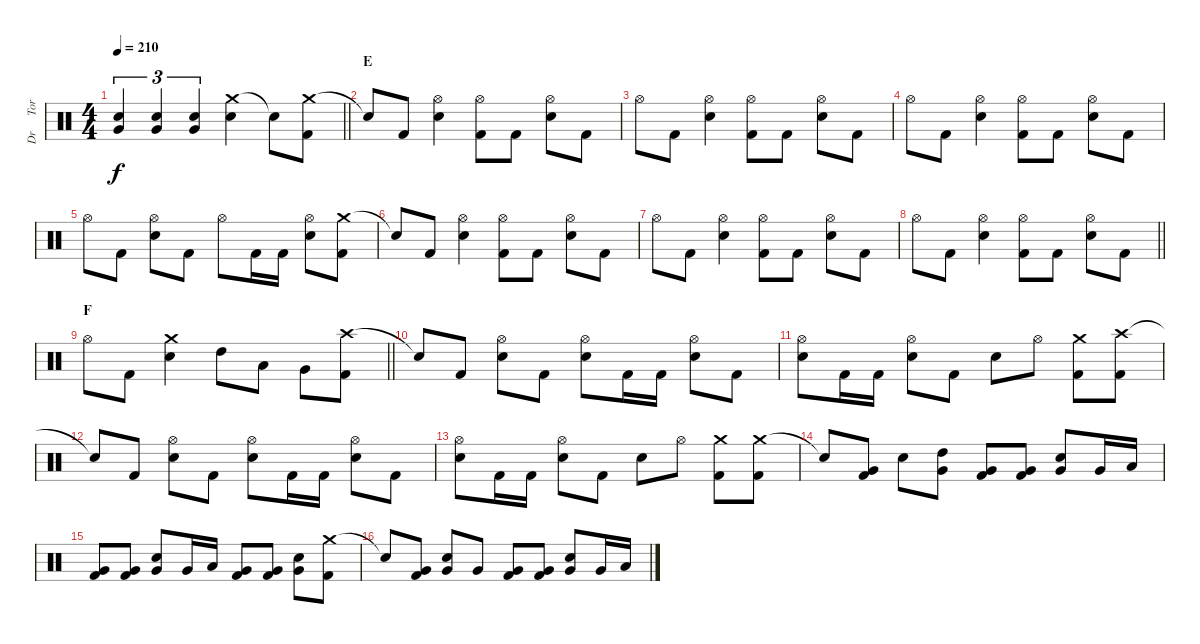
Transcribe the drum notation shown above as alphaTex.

\track ("Dr     Tora" "Dr     Tor") {instrument percussion}
\staff {score}
\articulation defaults
\ts (4 4)
\tempo 210
\clef neutral
\barLineRight lightlight
\ks c
("Electric Snare (hit)" "Very Low Tom (hit)").4{tu (3 2) dy f} ("Electric Snare (hit)" "Very Low Tom (hit)").4{tu (3 2)} ("Electric Snare (hit)" "Very Low Tom (hit)").4{tu (3 2)} ("Crash medium (hit)" "Electric Snare (hit)").4 "Snare (hit)"{t}.8 ("Crash medium (hit)" "Kick (hit) 2").8 |
\section ("" "E")
"Snare (hit)"{t}.8 "Kick (hit) 2".8 ("Hi-Hat (open)" "Electric Snare (hit)").4 ("Hi-Hat (open)" "Kick (hit) 2").8 "Kick (hit) 2".8 ("Hi-Hat (open)" "Electric Snare (hit)").8 "Kick (hit) 2".8 |
"Hi-Hat (open)".8 "Kick (hit) 2".8 ("Hi-Hat (open)" "Electric Snare (hit)").4 ("Hi-Hat (open)" "Kick (hit) 2").8 "Kick (hit) 2".8 ("Hi-Hat (open)" "Electric Snare (hit)").8 "Kick (hit) 2".8 |
"Hi-Hat (open)".8 "Kick (hit) 2".8 ("Hi-Hat (open)" "Electric Snare (hit)").4 ("Hi-Hat (open)" "Kick (hit) 2").8 "Kick (hit) 2".8 ("Hi-Hat (open)" "Electric Snare (hit)").8 "Kick (hit) 2".8 |
"Hi-Hat (open)".8 "Kick (hit) 2".8 ("Hi-Hat (open)" "Electric Snare (hit)").8 "Kick (hit) 2".8 "Hi-Hat (open)".8 "Kick (hit) 2".16 "Kick (hit) 2".16 ("Hi-Hat (open)" "Electric Snare (hit)").8 ("Crash medium (hit)" "Kick (hit) 2").8 |
"Snare (hit)"{t}.8 "Kick (hit) 2".8 ("Hi-Hat (open)" "Electric Snare (hit)").4 ("Hi-Hat (open)" "Kick (hit) 2").8 "Kick (hit) 2".8 ("Hi-Hat (open)" "Electric Snare (hit)").8 "Kick (hit) 2".8 |
"Hi-Hat (open)".8 "Kick (hit) 2".8 ("Hi-Hat (open)" "Electric Snare (hit)").4 ("Hi-Hat (open)" "Kick (hit) 2").8 "Kick (hit) 2".8 ("Hi-Hat (open)" "Electric Snare (hit)").8 "Kick (hit) 2".8 |
\barLineRight lightlight "Hi-Hat (open)".8 "Kick (hit) 2".8
("Hi-Hat (open)" "Electric Snare (hit)").4 ("Hi-Hat (open)" "Kick (hit) 2").8 "Kick (hit) 2".8 ("Hi-Hat (open)" "Electric Snare (hit)").8 "Kick (hit) 2".8 |
\section ("" "F")
\barLineRight lightlight "Hi-Hat (open)".8 "Kick (hit) 2".8
("Crash medium (hit)" "Electric Snare (hit)").4 "High Tom (hit)".8 "Low Tom (hit)".8 "Very Low Tom (hit)".8 ("Crash high (hit)" "Kick (hit) 2").8 |
"Snare (hit)"{t}.8 "Kick (hit) 2".8 ("Hi-Hat (open)" "Electric Snare (hit)").8 "Kick (hit) 2".8 ("Hi-Hat (open)" "Electric Snare (hit)").8 "Kick (hit) 2".16 "Kick (hit) 2".16 ("Hi-Hat (open)" "Electric Snare (hit)").8 "Kick (hit) 2".8 |
("Hi-Hat (open)" "Electric Snare (hit)").8 "Kick (hit) 2".16 "Kick (hit) 2".16 ("Hi-Hat (open)" "Electric Snare (hit)").8 "Kick (hit) 2".8 "Electric Snare (hit)".8 "Hi-Hat (open)".8 ("Crash medium (hit)" "Kick (hit) 2").8 ("Crash high (hit)" "Kick (hit) 2").8 |
"Snare (hit)"{t}.8 "Kick (hit) 2".8 ("Hi-Hat (open)" "Electric Snare (hit)").8 "Kick (hit) 2".8 ("Hi-Hat (open)" "Electric Snare (hit)").8 "Kick (hit) 2".16 "Kick (hit) 2".16 ("Hi-Hat (open)" "Electric Snare (hit)").8 "Kick (hit) 2".8 |
("Hi-Hat (open)" "Electric Snare (hit)").8 "Kick (hit) 2".16 "Kick (hit) 2".16 ("Hi-Hat (open)" "Electric Snare (hit)").8 "Kick (hit) 2".8 "Electric Snare (hit)".8 "Hi-Hat (open)".8 ("Crash medium (hit)" "Kick (hit) 2").8 ("Crash medium (hit)" "Kick (hit) 2").8 |
"Snare (hit)"{t}.8 ("Very Low Tom (hit)" "Kick (hit) 2").8 "Electric Snare (hit)".8 ("High Tom (hit)" "Very Low Tom (hit)").8 ("Very Low Tom (hit)" "Kick (hit) 2").8 ("Very Low Tom (hit)" "Kick (hit) 2").8 ("Electric Snare (hit)" "Very Low Tom (hit)").8 "Very Low Tom (hit)".16 "Low Tom (hit)".16 |
("Very Low Tom (hit)" "Kick (hit) 2").8 ("Very Low Tom (hit)" "Kick (hit) 2").8 ("Electric Snare (hit)" "Very Low Tom (hit)").8 "Very Low Tom (hit)".16 "Low Tom (hit)".16 ("Very Low Tom (hit)" "Kick (hit) 2").8 ("Very Low Tom (hit)" "Kick (hit) 2").8 ("Electric Snare (hit)" "Very Low Tom (hit)").8 ("Crash medium (hit)" "Kick (hit) 2").8 |
"Snare (hit)"{t}.8 ("Very Low Tom (hit)" "Kick (hit) 2").8 ("Electric Snare (hit)" "Very Low Tom (hit)").8 "Very Low Tom (hit)".8 ("Very Low Tom (hit)" "Kick (hit) 2").8 ("Very Low Tom (hit)" "Kick (hit) 2").8 ("Electric Snare (hit)" "Very Low Tom (hit)").8 "Very Low Tom (hit)".16 "Low Tom (hit)".16
